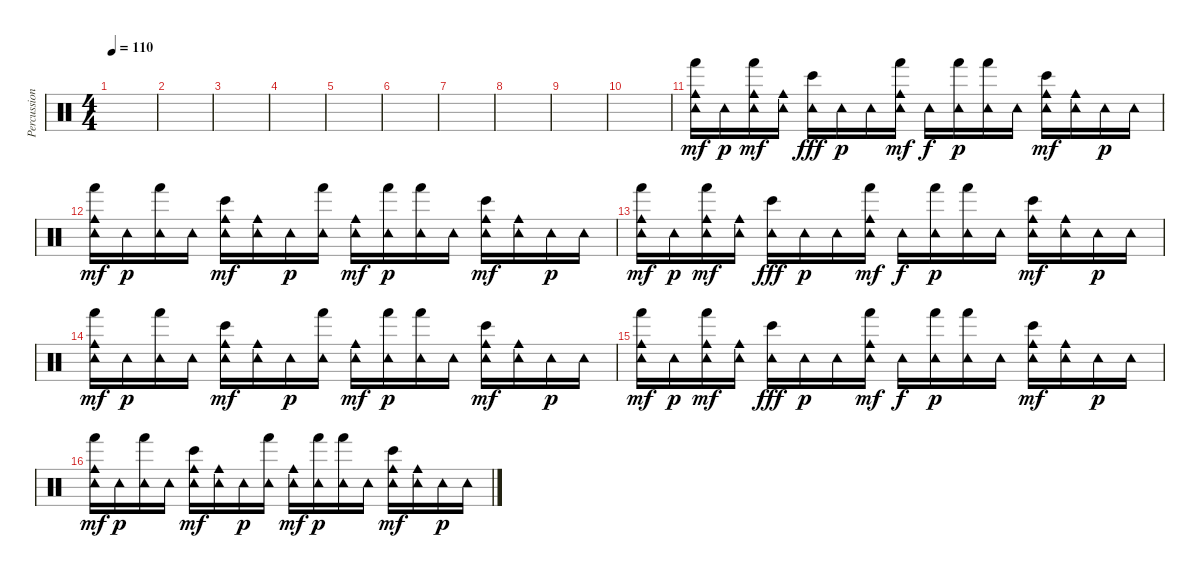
\track ("Percussions" "Percussion") {instrument percussion}
\staff {score}
\articulation defaults
\ts (4 4)
\tempo 110
\clef neutral
\ks c
|
|
|
|
|
|
|
|
|
|
("Hand (hit)" "Tambourine (hit)" "Cowbell medium (hit)").16{dy mf} "Tambourine (hit)".16{dy p} ("Hand (hit)" "Tambourine (hit)" "Cowbell medium (hit)").16{dy mf} ("Tambourine (hit)" "Cowbell medium (hit)").16 ("Bongo High (hit)" "Tambourine (hit)").16{dy fff} "Tambourine (hit)".16{dy p} "Tambourine (hit)".16 ("Hand (hit)" "Tambourine (hit)" "Cowbell medium (hit)").16{dy mf} "Tambourine (hit)".16{dy f} ("Hand (hit)" "Tambourine (hit)").16{dy p} ("Hand (hit)" "Tambourine (hit)").16 "Tambourine (hit)".16 ("Bongo High (hit)" "Tambourine (hit)" "Cowbell medium (hit)").16{dy mf} ("Tambourine (hit)" "Cowbell medium (hit)").16 "Tambourine (hit)".16{dy p} "Tambourine (hit)".16 |
("Hand (hit)" "Tambourine (hit)" "Cowbell medium (hit)").16{dy mf} "Tambourine (hit)".16{dy p} ("Hand (hit)" "Tambourine (hit)").16 "Tambourine (hit)".16 ("Bongo High (hit)" "Tambourine (hit)" "Cowbell medium (hit)").16{dy mf} ("Tambourine (hit)" "Cowbell medium (hit)").16 "Tambourine (hit)".16{dy p} ("Hand (hit)" "Tambourine (hit)").16 ("Tambourine (hit)" "Cowbell medium (hit)").16{dy mf} ("Hand (hit)" "Tambourine (hit)").16{dy p} ("Hand (hit)" "Tambourine (hit)").16 "Tambourine (hit)".16 ("Bongo High (hit)" "Tambourine (hit)" "Cowbell medium (hit)").16{dy mf} ("Tambourine (hit)" "Cowbell medium (hit)").16 "Tambourine (hit)".16{dy p} "Tambourine (hit)".16 |
("Hand (hit)" "Tambourine (hit)" "Cowbell medium (hit)").16{dy mf} "Tambourine (hit)".16{dy p} ("Hand (hit)" "Tambourine (hit)" "Cowbell medium (hit)").16{dy mf} ("Tambourine (hit)" "Cowbell medium (hit)").16 ("Bongo High (hit)" "Tambourine (hit)").16{dy fff} "Tambourine (hit)".16{dy p} "Tambourine (hit)".16 ("Hand (hit)" "Tambourine (hit)" "Cowbell medium (hit)").16{dy mf} "Tambourine (hit)".16{dy f} ("Hand (hit)" "Tambourine (hit)").16{dy p} ("Hand (hit)" "Tambourine (hit)").16 "Tambourine (hit)".16 ("Bongo High (hit)" "Tambourine (hit)" "Cowbell medium (hit)").16{dy mf} ("Tambourine (hit)" "Cowbell medium (hit)").16 "Tambourine (hit)".16{dy p} "Tambourine (hit)".16 |
("Hand (hit)" "Tambourine (hit)" "Cowbell medium (hit)").16{dy mf} "Tambourine (hit)".16{dy p} ("Hand (hit)" "Tambourine (hit)").16 "Tambourine (hit)".16 ("Bongo High (hit)" "Tambourine (hit)" "Cowbell medium (hit)").16{dy mf} ("Tambourine (hit)" "Cowbell medium (hit)").16 "Tambourine (hit)".16{dy p} ("Hand (hit)" "Tambourine (hit)").16 ("Tambourine (hit)" "Cowbell medium (hit)").16{dy mf} ("Hand (hit)" "Tambourine (hit)").16{dy p} ("Hand (hit)" "Tambourine (hit)").16 "Tambourine (hit)".16 ("Bongo High (hit)" "Tambourine (hit)" "Cowbell medium (hit)").16{dy mf} ("Tambourine (hit)" "Cowbell medium (hit)").16 "Tambourine (hit)".16{dy p} "Tambourine (hit)".16 |
("Hand (hit)" "Tambourine (hit)" "Cowbell medium (hit)").16{dy mf} "Tambourine (hit)".16{dy p} ("Hand (hit)" "Tambourine (hit)" "Cowbell medium (hit)").16{dy mf} ("Tambourine (hit)" "Cowbell medium (hit)").16 ("Bongo High (hit)" "Tambourine (hit)").16{dy fff} "Tambourine (hit)".16{dy p} "Tambourine (hit)".16 ("Hand (hit)" "Tambourine (hit)" "Cowbell medium (hit)").16{dy mf} "Tambourine (hit)".16{dy f} ("Hand (hit)" "Tambourine (hit)").16{dy p} ("Hand (hit)" "Tambourine (hit)").16 "Tambourine (hit)".16 ("Bongo High (hit)" "Tambourine (hit)" "Cowbell medium (hit)").16{dy mf} ("Tambourine (hit)" "Cowbell medium (hit)").16 "Tambourine (hit)".16{dy p} "Tambourine (hit)".16 |
("Hand (hit)" "Tambourine (hit)" "Cowbell medium (hit)").16{dy mf} "Tambourine (hit)".16{dy p} ("Hand (hit)" "Tambourine (hit)").16 "Tambourine (hit)".16 ("Bongo High (hit)" "Tambourine (hit)" "Cowbell medium (hit)").16{dy mf} ("Tambourine (hit)" "Cowbell medium (hit)").16 "Tambourine (hit)".16{dy p} ("Hand (hit)" "Tambourine (hit)").16 ("Tambourine (hit)" "Cowbell medium (hit)").16{dy mf} ("Hand (hit)" "Tambourine (hit)").16{dy p} ("Hand (hit)" "Tambourine (hit)").16 "Tambourine (hit)".16 ("Bongo High (hit)" "Tambourine (hit)" "Cowbell medium (hit)").16{dy mf} ("Tambourine (hit)" "Cowbell medium (hit)").16 "Tambourine (hit)".16{dy p} "Tambourine (hit)".16
